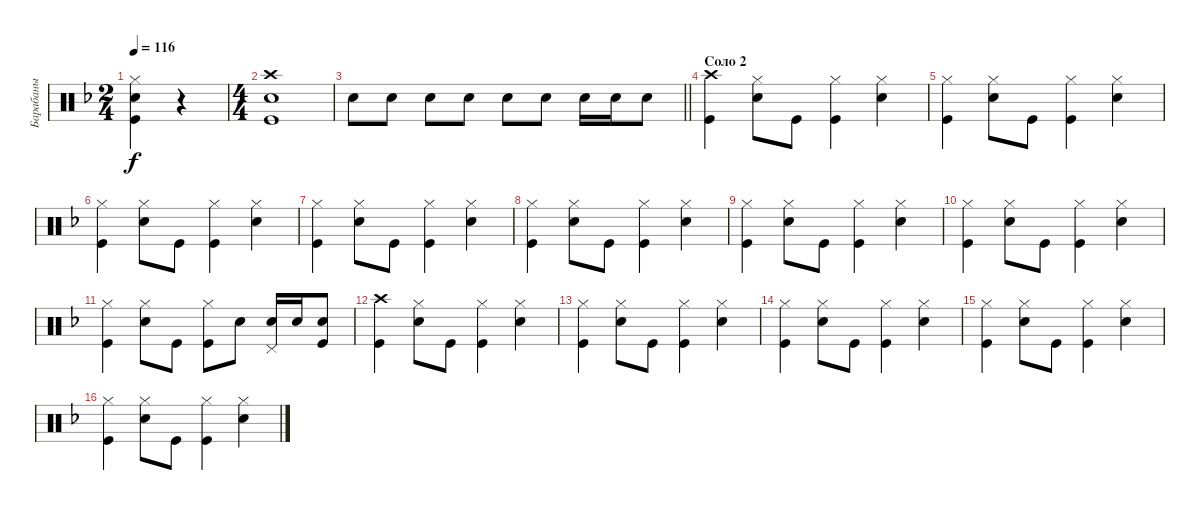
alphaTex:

\track ("Барабаны" "Барабаны") {instrument percussion}
\staff {score}
\articulation defaults
\ts (2 4)
\tempo 116
\clef neutral
\ks dminor
("Snare (hit) 2" "Kick (hit)" "Hi-Hat (closed)").4{dy f} r.4 |
\ts (4 4)
("Kick (hit)" "Crash high (hit)" "Snare (hit) 2").1 |
\barLineRight lightlight "Snare (hit) 2".8 "Snare (hit) 2".8 "Snare (hit) 2".8 "Snare (hit) 2".8 "Snare (hit) 2".8 "Snare (hit) 2".8 "Snare (hit) 2".16 "Snare (hit) 2".16 "Snare (hit) 2".8
|
\section ("" "Соло 2")
("Crash high (hit)" "Kick (hit)").4 ("Hi-Hat (closed)" "Snare (hit) 2").8 "Kick (hit)".8 ("Hi-Hat (closed)" "Kick (hit)").4 ("Hi-Hat (closed)" "Snare (hit) 2").4 |
("Hi-Hat (closed)" "Kick (hit)").4 ("Hi-Hat (closed)" "Snare (hit) 2").8 "Kick (hit)".8 ("Hi-Hat (closed)" "Kick (hit)").4 ("Hi-Hat (closed)" "Snare (hit) 2").4 |
("Hi-Hat (closed)" "Kick (hit)").4 ("Hi-Hat (closed)" "Snare (hit) 2").8 "Kick (hit)".8 ("Hi-Hat (closed)" "Kick (hit)").4 ("Hi-Hat (closed)" "Snare (hit) 2").4 |
("Hi-Hat (closed)" "Kick (hit)").4 ("Hi-Hat (closed)" "Snare (hit) 2").8 "Kick (hit)".8 ("Hi-Hat (closed)" "Kick (hit)").4 ("Hi-Hat (closed)" "Snare (hit) 2").4 |
("Hi-Hat (closed)" "Kick (hit)").4 ("Hi-Hat (closed)" "Snare (hit) 2").8 "Kick (hit)".8 ("Hi-Hat (closed)" "Kick (hit)").4 ("Hi-Hat (closed)" "Snare (hit) 2").4 |
("Hi-Hat (closed)" "Kick (hit)").4 ("Hi-Hat (closed)" "Snare (hit) 2").8 "Kick (hit)".8 ("Hi-Hat (closed)" "Kick (hit)").4 ("Hi-Hat (closed)" "Snare (hit) 2").4 |
("Hi-Hat (closed)" "Kick (hit)").4 ("Hi-Hat (closed)" "Snare (hit) 2").8 "Kick (hit)".8 ("Hi-Hat (closed)" "Kick (hit)").4 ("Hi-Hat (closed)" "Snare (hit) 2").4 |
("Hi-Hat (closed)" "Kick (hit)").4 ("Hi-Hat (closed)" "Snare (hit) 2").8 "Kick (hit)".8 ("Hi-Hat (closed)" "Kick (hit)").8 "Snare (hit) 2".8 ("Snare (hit) 2" "Pedal Hi-Hat (hit)").16 "Snare (hit) 2".16 ("Snare (hit) 2" "Kick (hit)").8 |
("Crash high (hit)" "Kick (hit)").4 ("Hi-Hat (closed)" "Snare (hit) 2").8 "Kick (hit)".8 ("Hi-Hat (closed)" "Kick (hit)").4 ("Hi-Hat (closed)" "Snare (hit) 2").4 |
("Hi-Hat (closed)" "Kick (hit)").4 ("Hi-Hat (closed)" "Snare (hit) 2").8 "Kick (hit)".8 ("Hi-Hat (closed)" "Kick (hit)").4 ("Hi-Hat (closed)" "Snare (hit) 2").4 |
("Hi-Hat (closed)" "Kick (hit)").4 ("Hi-Hat (closed)" "Snare (hit) 2").8 "Kick (hit)".8 ("Hi-Hat (closed)" "Kick (hit)").4 ("Hi-Hat (closed)" "Snare (hit) 2").4 |
("Hi-Hat (closed)" "Kick (hit)").4 ("Hi-Hat (closed)" "Snare (hit) 2").8 "Kick (hit)".8 ("Hi-Hat (closed)" "Kick (hit)").4 ("Hi-Hat (closed)" "Snare (hit) 2").4 |
("Hi-Hat (closed)" "Kick (hit)").4 ("Hi-Hat (closed)" "Snare (hit) 2").8 "Kick (hit)".8 ("Hi-Hat (closed)" "Kick (hit)").4 ("Hi-Hat (closed)" "Snare (hit) 2").4
